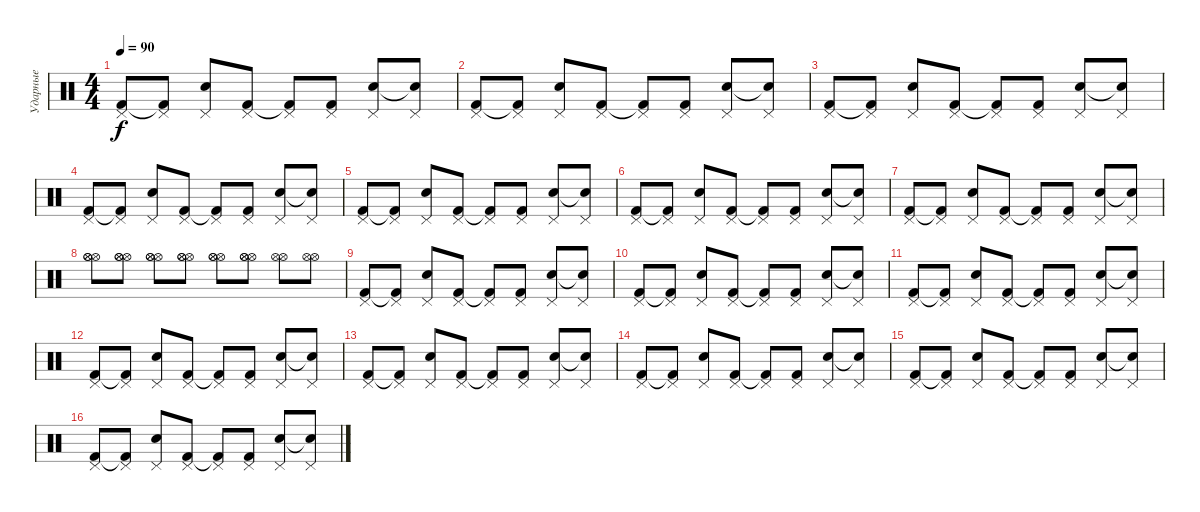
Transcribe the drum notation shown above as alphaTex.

\track ("Ударные" "Ударные") {instrument percussion}
\staff {score}
\articulation defaults
\ts (4 4)
\tempo 90
\clef neutral
\ks c
("Kick (hit) 2" "Pedal Hi-Hat (hit)").8{dy f} ("Kick (hit) 2"{t} "Pedal Hi-Hat (hit)").8 ("Snare (hit) 2" "Pedal Hi-Hat (hit)").8 ("Kick (hit) 2" "Pedal Hi-Hat (hit)").8 ("Kick (hit) 2"{t} "Pedal Hi-Hat (hit)").8 ("Kick (hit) 2" "Pedal Hi-Hat (hit)").8 ("Snare (hit) 2" "Pedal Hi-Hat (hit)").8 ("Snare (hit) 2"{t} "Pedal Hi-Hat (hit)").8 |
("Kick (hit) 2" "Pedal Hi-Hat (hit)").8 ("Kick (hit) 2"{t} "Pedal Hi-Hat (hit)").8 ("Snare (hit) 2" "Pedal Hi-Hat (hit)").8 ("Kick (hit) 2" "Pedal Hi-Hat (hit)").8 ("Kick (hit) 2"{t} "Pedal Hi-Hat (hit)").8 ("Kick (hit) 2" "Pedal Hi-Hat (hit)").8 ("Snare (hit) 2" "Pedal Hi-Hat (hit)").8 ("Snare (hit) 2"{t} "Pedal Hi-Hat (hit)").8 |
("Kick (hit) 2" "Pedal Hi-Hat (hit)").8 ("Kick (hit) 2"{t} "Pedal Hi-Hat (hit)").8 ("Snare (hit) 2" "Pedal Hi-Hat (hit)").8 ("Kick (hit) 2" "Pedal Hi-Hat (hit)").8 ("Kick (hit) 2"{t} "Pedal Hi-Hat (hit)").8 ("Kick (hit) 2" "Pedal Hi-Hat (hit)").8 ("Snare (hit) 2" "Pedal Hi-Hat (hit)").8 ("Snare (hit) 2"{t} "Pedal Hi-Hat (hit)").8 |
("Kick (hit) 2" "Pedal Hi-Hat (hit)").8 ("Kick (hit) 2"{t} "Pedal Hi-Hat (hit)").8 ("Snare (hit) 2" "Pedal Hi-Hat (hit)").8 ("Kick (hit) 2" "Pedal Hi-Hat (hit)").8 ("Kick (hit) 2"{t} "Pedal Hi-Hat (hit)").8 ("Kick (hit) 2" "Pedal Hi-Hat (hit)").8 ("Snare (hit) 2" "Pedal Hi-Hat (hit)").8 ("Snare (hit) 2"{t} "Pedal Hi-Hat (hit)").8 |
("Kick (hit) 2" "Pedal Hi-Hat (hit)").8 ("Kick (hit) 2"{t} "Pedal Hi-Hat (hit)").8 ("Snare (hit) 2" "Pedal Hi-Hat (hit)").8 ("Kick (hit) 2" "Pedal Hi-Hat (hit)").8 ("Kick (hit) 2"{t} "Pedal Hi-Hat (hit)").8 ("Kick (hit) 2" "Pedal Hi-Hat (hit)").8 ("Snare (hit) 2" "Pedal Hi-Hat (hit)").8 ("Snare (hit) 2"{t} "Pedal Hi-Hat (hit)").8 |
("Kick (hit) 2" "Pedal Hi-Hat (hit)").8 ("Kick (hit) 2"{t} "Pedal Hi-Hat (hit)").8 ("Snare (hit) 2" "Pedal Hi-Hat (hit)").8 ("Kick (hit) 2" "Pedal Hi-Hat (hit)").8 ("Kick (hit) 2"{t} "Pedal Hi-Hat (hit)").8 ("Kick (hit) 2" "Pedal Hi-Hat (hit)").8 ("Snare (hit) 2" "Pedal Hi-Hat (hit)").8 ("Snare (hit) 2"{t} "Pedal Hi-Hat (hit)").8 |
("Kick (hit) 2" "Pedal Hi-Hat (hit)").8 ("Kick (hit) 2"{t} "Pedal Hi-Hat (hit)").8 ("Snare (hit) 2" "Pedal Hi-Hat (hit)").8 ("Kick (hit) 2" "Pedal Hi-Hat (hit)").8 ("Kick (hit) 2"{t} "Pedal Hi-Hat (hit)").8 ("Kick (hit) 2" "Pedal Hi-Hat (hit)").8 ("Snare (hit) 2" "Pedal Hi-Hat (hit)").8 ("Snare (hit) 2"{t} "Pedal Hi-Hat (hit)").8 |
("Hi-Hat (open)" "Hi-Hat (open)" "Hi-Hat (open)").8 ("Hi-Hat (open)" "Hi-Hat (open)" "Hi-Hat (open)").8 ("Hi-Hat (open)" "Hi-Hat (open)" "Hi-Hat (open)").8 ("Hi-Hat (open)" "Hi-Hat (open)" "Hi-Hat (open)").8 ("Hi-Hat (open)" "Hi-Hat (open)" "Hi-Hat (open)").8 ("Hi-Hat (open)" "Hi-Hat (open)" "Hi-Hat (open)").8 ("Hi-Hat (open)" "Hi-Hat (open)").8 ("Hi-Hat (open)" "Hi-Hat (open)").8 |
("Kick (hit) 2" "Pedal Hi-Hat (hit)").8 ("Kick (hit) 2"{t} "Pedal Hi-Hat (hit)").8 ("Snare (hit) 2" "Pedal Hi-Hat (hit)").8 ("Kick (hit) 2" "Pedal Hi-Hat (hit)").8 ("Kick (hit) 2"{t} "Pedal Hi-Hat (hit)").8 ("Kick (hit) 2" "Pedal Hi-Hat (hit)").8 ("Snare (hit) 2" "Pedal Hi-Hat (hit)").8 ("Snare (hit) 2"{t} "Pedal Hi-Hat (hit)").8 |
("Kick (hit) 2" "Pedal Hi-Hat (hit)").8 ("Kick (hit) 2"{t} "Pedal Hi-Hat (hit)").8 ("Snare (hit) 2" "Pedal Hi-Hat (hit)").8 ("Kick (hit) 2" "Pedal Hi-Hat (hit)").8 ("Kick (hit) 2"{t} "Pedal Hi-Hat (hit)").8 ("Kick (hit) 2" "Pedal Hi-Hat (hit)").8 ("Snare (hit) 2" "Pedal Hi-Hat (hit)").8 ("Snare (hit) 2"{t} "Pedal Hi-Hat (hit)").8 |
("Kick (hit) 2" "Pedal Hi-Hat (hit)").8 ("Kick (hit) 2"{t} "Pedal Hi-Hat (hit)").8 ("Snare (hit) 2" "Pedal Hi-Hat (hit)").8 ("Kick (hit) 2" "Pedal Hi-Hat (hit)").8 ("Kick (hit) 2"{t} "Pedal Hi-Hat (hit)").8 ("Kick (hit) 2" "Pedal Hi-Hat (hit)").8 ("Snare (hit) 2" "Pedal Hi-Hat (hit)").8 ("Snare (hit) 2"{t} "Pedal Hi-Hat (hit)").8 |
("Kick (hit) 2" "Pedal Hi-Hat (hit)").8 ("Kick (hit) 2"{t} "Pedal Hi-Hat (hit)").8 ("Snare (hit) 2" "Pedal Hi-Hat (hit)").8 ("Kick (hit) 2" "Pedal Hi-Hat (hit)").8 ("Kick (hit) 2"{t} "Pedal Hi-Hat (hit)").8 ("Kick (hit) 2" "Pedal Hi-Hat (hit)").8 ("Snare (hit) 2" "Pedal Hi-Hat (hit)").8 ("Snare (hit) 2"{t} "Pedal Hi-Hat (hit)").8 |
("Kick (hit) 2" "Pedal Hi-Hat (hit)").8 ("Kick (hit) 2"{t} "Pedal Hi-Hat (hit)").8 ("Snare (hit) 2" "Pedal Hi-Hat (hit)").8 ("Kick (hit) 2" "Pedal Hi-Hat (hit)").8 ("Kick (hit) 2"{t} "Pedal Hi-Hat (hit)").8 ("Kick (hit) 2" "Pedal Hi-Hat (hit)").8 ("Snare (hit) 2" "Pedal Hi-Hat (hit)").8 ("Snare (hit) 2"{t} "Pedal Hi-Hat (hit)").8 |
("Kick (hit) 2" "Pedal Hi-Hat (hit)").8 ("Kick (hit) 2"{t} "Pedal Hi-Hat (hit)").8 ("Snare (hit) 2" "Pedal Hi-Hat (hit)").8 ("Kick (hit) 2" "Pedal Hi-Hat (hit)").8 ("Kick (hit) 2"{t} "Pedal Hi-Hat (hit)").8 ("Kick (hit) 2" "Pedal Hi-Hat (hit)").8 ("Snare (hit) 2" "Pedal Hi-Hat (hit)").8 ("Snare (hit) 2"{t} "Pedal Hi-Hat (hit)").8 |
("Kick (hit) 2" "Pedal Hi-Hat (hit)").8 ("Kick (hit) 2"{t} "Pedal Hi-Hat (hit)").8 ("Snare (hit) 2" "Pedal Hi-Hat (hit)").8 ("Kick (hit) 2" "Pedal Hi-Hat (hit)").8 ("Kick (hit) 2"{t} "Pedal Hi-Hat (hit)").8 ("Kick (hit) 2" "Pedal Hi-Hat (hit)").8 ("Snare (hit) 2" "Pedal Hi-Hat (hit)").8 ("Snare (hit) 2"{t} "Pedal Hi-Hat (hit)").8 |
("Kick (hit) 2" "Pedal Hi-Hat (hit)").8 ("Kick (hit) 2"{t} "Pedal Hi-Hat (hit)").8 ("Snare (hit) 2" "Pedal Hi-Hat (hit)").8 ("Kick (hit) 2" "Pedal Hi-Hat (hit)").8 ("Kick (hit) 2"{t} "Pedal Hi-Hat (hit)").8 ("Kick (hit) 2" "Pedal Hi-Hat (hit)").8 ("Snare (hit) 2" "Pedal Hi-Hat (hit)").8 ("Snare (hit) 2"{t} "Pedal Hi-Hat (hit)").8
